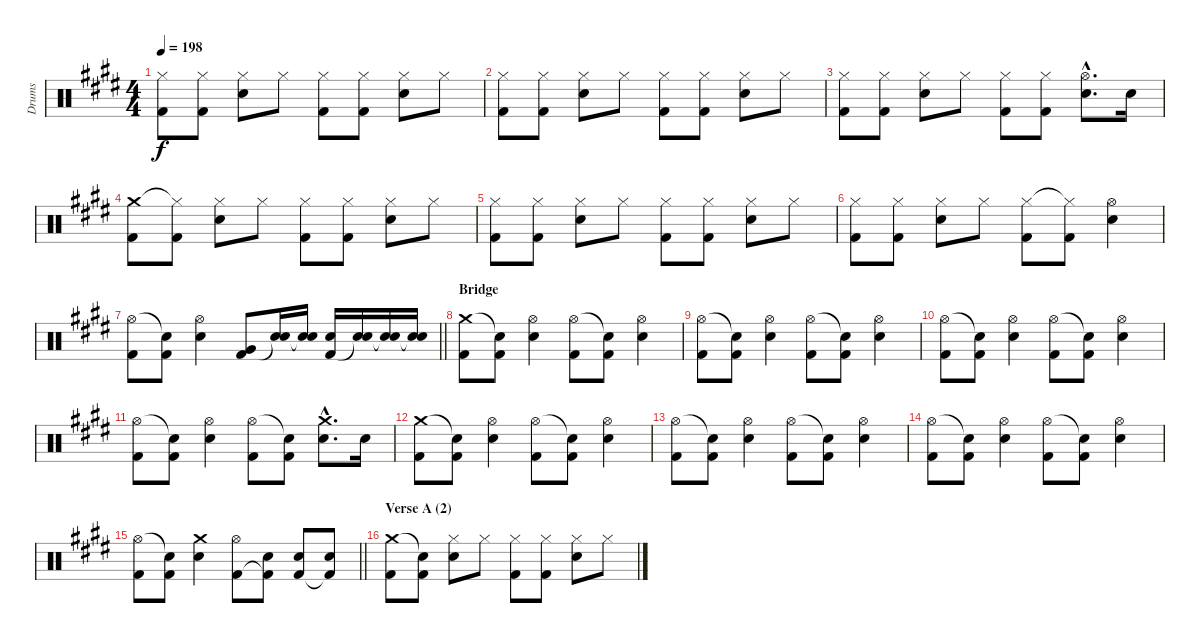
\track ("Drums" "Drums") {instrument percussion}
\staff {score}
\articulation defaults
\ts (4 4)
\tempo 198
\clef neutral
\ks c#minor
("Hi-Hat (closed)" "Kick (hit) 2").8{dy f} ("Hi-Hat (closed)" "Kick (hit) 2").8 ("Hi-Hat (closed)" "Electric Snare (hit)").8 "Hi-Hat (closed)".8 ("Hi-Hat (closed)" "Kick (hit) 2").8 ("Hi-Hat (closed)" "Kick (hit) 2").8 ("Hi-Hat (closed)" "Electric Snare (hit)").8 "Hi-Hat (closed)".8 |
("Hi-Hat (closed)" "Kick (hit) 2").8 ("Hi-Hat (closed)" "Kick (hit) 2").8 ("Hi-Hat (closed)" "Electric Snare (hit)").8 "Hi-Hat (closed)".8 ("Hi-Hat (closed)" "Kick (hit) 2").8 ("Hi-Hat (closed)" "Kick (hit) 2").8 ("Hi-Hat (closed)" "Electric Snare (hit)").8 "Hi-Hat (closed)".8 |
("Hi-Hat (closed)" "Kick (hit) 2").8 ("Hi-Hat (closed)" "Kick (hit) 2").8 ("Hi-Hat (closed)" "Electric Snare (hit)").8 "Hi-Hat (closed)".8 ("Hi-Hat (closed)" "Kick (hit) 2").8 ("Hi-Hat (closed)" "Kick (hit) 2").8 ("Hi-Hat (open)"{hac} "Electric Snare (hit)"{hac}).8{d} "Electric Snare (hit)".16 |
("Crash medium (hit)" "Kick (hit) 2").8 ("Hi-Hat (closed)"{t} "Kick (hit) 2").8 ("Hi-Hat (closed)" "Electric Snare (hit)").8 "Hi-Hat (closed)".8 ("Hi-Hat (closed)" "Kick (hit) 2").8 ("Hi-Hat (closed)" "Kick (hit) 2").8 ("Hi-Hat (closed)" "Electric Snare (hit)").8 "Hi-Hat (closed)".8 |
("Hi-Hat (closed)" "Kick (hit) 2").8 ("Hi-Hat (closed)" "Kick (hit) 2").8 ("Hi-Hat (closed)" "Electric Snare (hit)").8 "Hi-Hat (closed)".8 ("Hi-Hat (closed)" "Kick (hit) 2").8 ("Hi-Hat (closed)" "Kick (hit) 2").8 ("Hi-Hat (closed)" "Electric Snare (hit)").8 "Hi-Hat (closed)".8 |
("Hi-Hat (closed)" "Kick (hit) 2").8 ("Hi-Hat (closed)" "Kick (hit) 2").8 ("Hi-Hat (closed)" "Electric Snare (hit)").8 "Hi-Hat (closed)".8 ("Hi-Hat (closed)" "Kick (hit) 2").8 ("Hi-Hat (closed)"{t} "Kick (hit) 2").8 ("Hi-Hat (open)" "Electric Snare (hit)").4 |
\barLineRight lightlight
("Hi-Hat (open)" "Kick (hit) 2").8 ("Snare (hit)"{t} "Kick (hit) 2").8 ("Hi-Hat (open)" "Electric Snare (hit)").4 ("Very Low Tom (hit)" "Kick (hit) 2").8 ("Electric Snare (hit)" "Snare (hit)"{t}).16 ("Electric Snare (hit)" "Snare (hit)"{t}).16 ("Electric Snare (hit)" "Kick (hit) 2").16 ("Electric Snare (hit)" "Snare (hit)"{t}).16 ("Electric Snare (hit)" "Snare (hit)"{t}).16 ("Electric Snare (hit)" "Snare (hit)"{t}).16 |
\section ("" "Bridge")
("Crash medium (hit)" "Kick (hit) 2").8 ("Snare (hit)"{t} "Kick (hit) 2").8 ("Hi-Hat (open)" "Electric Snare (hit)").4 ("Hi-Hat (open)" "Kick (hit) 2").8 ("Snare (hit)"{t} "Kick (hit) 2").8 ("Hi-Hat (open)" "Electric Snare (hit)").4 |
("Hi-Hat (open)" "Kick (hit) 2").8 ("Snare (hit)"{t} "Kick (hit) 2").8 ("Hi-Hat (open)" "Electric Snare (hit)").4 ("Hi-Hat (open)" "Kick (hit) 2").8 ("Snare (hit)"{t} "Kick (hit) 2").8 ("Hi-Hat (open)" "Electric Snare (hit)").4 |
("Hi-Hat (open)" "Kick (hit) 2").8 ("Snare (hit)"{t} "Kick (hit) 2").8 ("Hi-Hat (open)" "Electric Snare (hit)").4 ("Hi-Hat (open)" "Kick (hit) 2").8 ("Snare (hit)"{t} "Kick (hit) 2").8 ("Hi-Hat (open)" "Electric Snare (hit)").4 |
("Hi-Hat (open)" "Kick (hit) 2").8 ("Snare (hit)"{t} "Kick (hit) 2").8 ("Hi-Hat (open)" "Electric Snare (hit)").4 ("Hi-Hat (open)" "Kick (hit) 2").8 ("Snare (hit)"{t} "Kick (hit) 2").8 ("Crash medium (hit)"{hac} "Electric Snare (hit)"{hac}).8{d} "Electric Snare (hit)".16 |
("Crash medium (hit)" "Kick (hit) 2").8 ("Snare (hit)"{t} "Kick (hit) 2").8 ("Hi-Hat (open)" "Electric Snare (hit)").4 ("Hi-Hat (open)" "Kick (hit) 2").8 ("Snare (hit)"{t} "Kick (hit) 2").8 ("Hi-Hat (open)" "Electric Snare (hit)").4 |
("Hi-Hat (open)" "Kick (hit) 2").8 ("Snare (hit)"{t} "Kick (hit) 2").8 ("Hi-Hat (open)" "Electric Snare (hit)").4 ("Hi-Hat (open)" "Kick (hit) 2").8 ("Snare (hit)"{t} "Kick (hit) 2").8 ("Hi-Hat (open)" "Electric Snare (hit)").4 |
("Hi-Hat (open)" "Kick (hit) 2").8 ("Snare (hit)"{t} "Kick (hit) 2").8 ("Hi-Hat (open)" "Electric Snare (hit)").4 ("Hi-Hat (open)" "Kick (hit) 2").8 ("Snare (hit)"{t} "Kick (hit) 2").8 ("Hi-Hat (open)" "Electric Snare (hit)").4 |
\barLineRight lightlight
("Hi-Hat (open)" "Kick (hit) 2").8 ("Snare (hit)"{t} "Kick (hit) 2").8 ("Crash medium (hit)" "Electric Snare (hit)").4 ("Hi-Hat (open)" "Kick (hit) 2").8 ("Electric Snare (hit)" "Kick (hit) 2"{t}).8 ("Electric Snare (hit)" "Kick (hit) 2").8 ("Electric Snare (hit)" "Kick (hit) 2"{t}).8 |
\section ("" "Verse A (2)")
("Crash medium (hit)" "Kick (hit) 2").8 ("Snare (hit)"{t} "Kick (hit) 2").8 ("Hi-Hat (closed)" "Electric Snare (hit)").8 "Hi-Hat (closed)".8 ("Hi-Hat (closed)" "Kick (hit) 2").8 ("Hi-Hat (closed)" "Kick (hit) 2").8 ("Hi-Hat (closed)" "Electric Snare (hit)").8 "Hi-Hat (closed)".8
